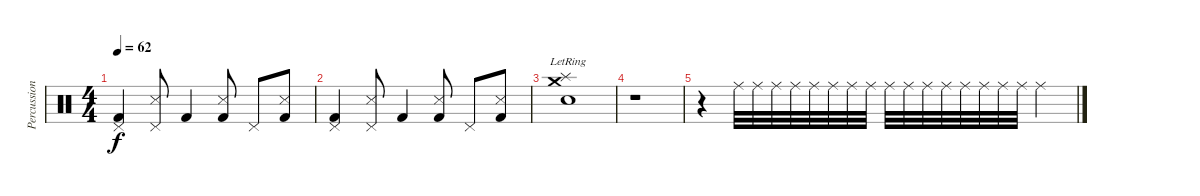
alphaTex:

\track ("Percussions" "Percussion") {instrument percussion}
\staff {score}
\articulation defaults
\ts (4 4)
\tempo 62
\clef neutral
\ks c
("Kick (hit) 2" "Pedal Hi-Hat (hit)").4{dy f} ("Snare (side stick) 3" "Pedal Hi-Hat (hit)").8 "Kick (hit) 2".4 ("Kick (hit) 2" "Snare (side stick) 3").8 "Pedal Hi-Hat (hit)".8 ("Kick (hit) 2" "Snare (side stick) 3").8 |
("Kick (hit) 2" "Pedal Hi-Hat (hit)").4 ("Snare (side stick) 3" "Pedal Hi-Hat (hit)").8 "Kick (hit) 2".4 ("Kick (hit) 2" "Snare (side stick) 3").8 "Pedal Hi-Hat (hit)".8 ("Kick (hit) 2" "Snare (side stick) 3").8 |
("Splash (hit)"{lr} "Snare (hit) 2" "Crash medium (hit)").1 |
r.1 |
r.4 "Ride (middle)".32 "Ride (middle)".32 "Ride (middle)".32 "Ride (middle)".32 "Ride (middle)".32 "Ride (middle)".32 "Ride (middle)".32 "Ride (middle)".32 "Ride (middle)".32 "Ride (middle)".32 "Ride (middle)".32 "Ride (middle)".32 "Ride (middle)".32 "Ride (middle)".32 "Ride (middle)".32 "Ride (middle)".32 "Ride (middle)".4
